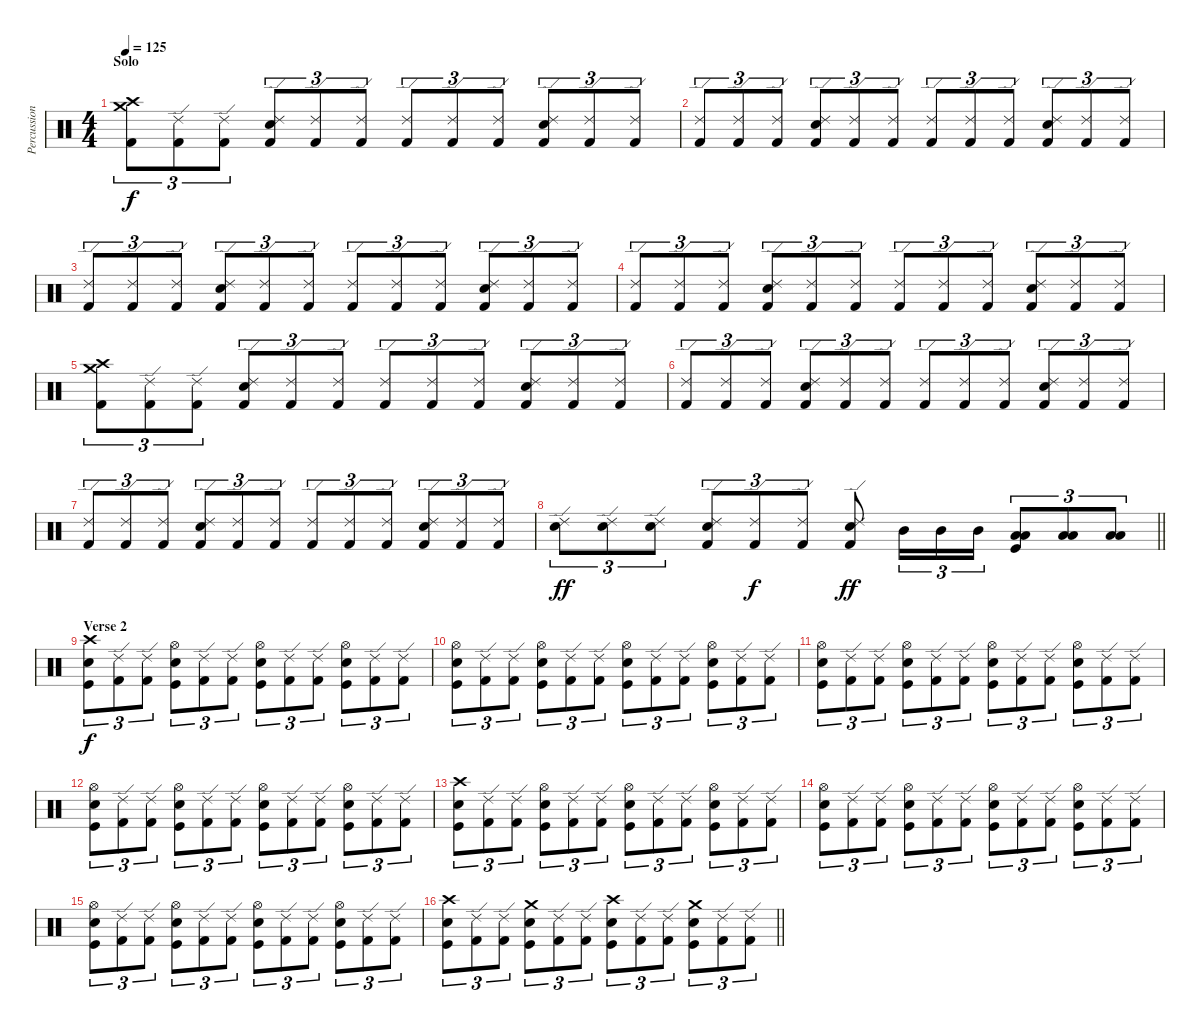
\track ("Percussion" "Percussion") {instrument percussion}
\staff {score}
\articulation defaults
\ts (4 4)
\section ("" "Solo")
\tempo 125
\clef neutral
\ks c
("Crash medium (hit)" "Crash high (hit)" "Kick (hit) 2").8{tu (3 2) dy f} ("Ride (edge) 2" "Kick (hit) 2").8{tu (3 2)} ("Ride (edge) 2" "Kick (hit) 2").8{tu (3 2)} ("Snare (hit) 2" "Ride (edge) 2" "Kick (hit) 2").8{tu (3 2)} ("Ride (edge) 2" "Kick (hit) 2").8{tu (3 2)} ("Ride (edge) 2" "Kick (hit) 2").8{tu (3 2)} ("Ride (edge) 2" "Kick (hit) 2").8{tu (3 2)} ("Ride (edge) 2" "Kick (hit) 2").8{tu (3 2)} ("Ride (edge) 2" "Kick (hit) 2").8{tu (3 2)} ("Snare (hit) 2" "Ride (edge) 2" "Kick (hit) 2").8{tu (3 2)} ("Ride (edge) 2" "Kick (hit) 2").8{tu (3 2)} ("Ride (edge) 2" "Kick (hit) 2").8{tu (3 2)} |
("Ride (edge) 2" "Kick (hit) 2").8{tu (3 2)} ("Ride (edge) 2" "Kick (hit) 2").8{tu (3 2)} ("Ride (edge) 2" "Kick (hit) 2").8{tu (3 2)} ("Snare (hit) 2" "Ride (edge) 2" "Kick (hit) 2").8{tu (3 2)} ("Ride (edge) 2" "Kick (hit) 2").8{tu (3 2)} ("Ride (edge) 2" "Kick (hit) 2").8{tu (3 2)} ("Ride (edge) 2" "Kick (hit) 2").8{tu (3 2)} ("Ride (edge) 2" "Kick (hit) 2").8{tu (3 2)} ("Ride (edge) 2" "Kick (hit) 2").8{tu (3 2)} ("Snare (hit) 2" "Ride (edge) 2" "Kick (hit) 2").8{tu (3 2)} ("Ride (edge) 2" "Kick (hit) 2").8{tu (3 2)} ("Ride (edge) 2" "Kick (hit) 2").8{tu (3 2)} |
("Ride (edge) 2" "Kick (hit) 2").8{tu (3 2)} ("Ride (edge) 2" "Kick (hit) 2").8{tu (3 2)} ("Ride (edge) 2" "Kick (hit) 2").8{tu (3 2)} ("Snare (hit) 2" "Ride (edge) 2" "Kick (hit) 2").8{tu (3 2)} ("Ride (edge) 2" "Kick (hit) 2").8{tu (3 2)} ("Ride (edge) 2" "Kick (hit) 2").8{tu (3 2)} ("Ride (edge) 2" "Kick (hit) 2").8{tu (3 2)} ("Ride (edge) 2" "Kick (hit) 2").8{tu (3 2)} ("Ride (edge) 2" "Kick (hit) 2").8{tu (3 2)} ("Snare (hit) 2" "Ride (edge) 2" "Kick (hit) 2").8{tu (3 2)} ("Ride (edge) 2" "Kick (hit) 2").8{tu (3 2)} ("Ride (edge) 2" "Kick (hit) 2").8{tu (3 2)} |
("Ride (edge) 2" "Kick (hit) 2").8{tu (3 2)} ("Ride (edge) 2" "Kick (hit) 2").8{tu (3 2)} ("Ride (edge) 2" "Kick (hit) 2").8{tu (3 2)} ("Snare (hit) 2" "Ride (edge) 2" "Kick (hit) 2").8{tu (3 2)} ("Ride (edge) 2" "Kick (hit) 2").8{tu (3 2)} ("Ride (edge) 2" "Kick (hit) 2").8{tu (3 2)} ("Ride (edge) 2" "Kick (hit) 2").8{tu (3 2)} ("Ride (edge) 2" "Kick (hit) 2").8{tu (3 2)} ("Ride (edge) 2" "Kick (hit) 2").8{tu (3 2)} ("Snare (hit) 2" "Ride (edge) 2" "Kick (hit) 2").8{tu (3 2)} ("Ride (edge) 2" "Kick (hit) 2").8{tu (3 2)} ("Ride (edge) 2" "Kick (hit) 2").8{tu (3 2)} |
("Crash medium (hit)" "Crash high (hit)" "Kick (hit) 2").8{tu (3 2)} ("Ride (edge) 2" "Kick (hit) 2").8{tu (3 2)} ("Ride (edge) 2" "Kick (hit) 2").8{tu (3 2)} ("Snare (hit) 2" "Ride (edge) 2" "Kick (hit) 2").8{tu (3 2)} ("Ride (edge) 2" "Kick (hit) 2").8{tu (3 2)} ("Ride (edge) 2" "Kick (hit) 2").8{tu (3 2)} ("Ride (edge) 2" "Kick (hit) 2").8{tu (3 2)} ("Ride (edge) 2" "Kick (hit) 2").8{tu (3 2)} ("Ride (edge) 2" "Kick (hit) 2").8{tu (3 2)} ("Snare (hit) 2" "Ride (edge) 2" "Kick (hit) 2").8{tu (3 2)} ("Ride (edge) 2" "Kick (hit) 2").8{tu (3 2)} ("Ride (edge) 2" "Kick (hit) 2").8{tu (3 2)} |
("Ride (edge) 2" "Kick (hit) 2").8{tu (3 2)} ("Ride (edge) 2" "Kick (hit) 2").8{tu (3 2)} ("Ride (edge) 2" "Kick (hit) 2").8{tu (3 2)} ("Snare (hit) 2" "Ride (edge) 2" "Kick (hit) 2").8{tu (3 2)} ("Ride (edge) 2" "Kick (hit) 2").8{tu (3 2)} ("Ride (edge) 2" "Kick (hit) 2").8{tu (3 2)} ("Ride (edge) 2" "Kick (hit) 2").8{tu (3 2)} ("Ride (edge) 2" "Kick (hit) 2").8{tu (3 2)} ("Ride (edge) 2" "Kick (hit) 2").8{tu (3 2)} ("Snare (hit) 2" "Ride (edge) 2" "Kick (hit) 2").8{tu (3 2)} ("Ride (edge) 2" "Kick (hit) 2").8{tu (3 2)} ("Ride (edge) 2" "Kick (hit) 2").8{tu (3 2)} |
("Ride (edge) 2" "Kick (hit) 2").8{tu (3 2)} ("Ride (edge) 2" "Kick (hit) 2").8{tu (3 2)} ("Ride (edge) 2" "Kick (hit) 2").8{tu (3 2)} ("Snare (hit) 2" "Ride (edge) 2" "Kick (hit) 2").8{tu (3 2)} ("Ride (edge) 2" "Kick (hit) 2").8{tu (3 2)} ("Ride (edge) 2" "Kick (hit) 2").8{tu (3 2)} ("Ride (edge) 2" "Kick (hit) 2").8{tu (3 2)} ("Ride (edge) 2" "Kick (hit) 2").8{tu (3 2)} ("Ride (edge) 2" "Kick (hit) 2").8{tu (3 2)} ("Snare (hit) 2" "Ride (edge) 2" "Kick (hit) 2").8{tu (3 2)} ("Ride (edge) 2" "Kick (hit) 2").8{tu (3 2)} ("Ride (edge) 2" "Kick (hit) 2").8{tu (3 2)} |
\barLineRight lightlight
("Ride (edge) 2" "Snare (hit) 2").8{tu (3 2) dy ff} ("Ride (edge) 2" "Snare (hit) 2").8{tu (3 2)} ("Ride (edge) 2" "Snare (hit) 2").8{tu (3 2)} ("Snare (hit) 2" "Ride (edge) 2" "Kick (hit) 2").8{tu (3 2)} ("Ride (edge) 2" "Kick (hit) 2").8{tu (3 2) dy f} ("Ride (edge) 2" "Kick (hit) 2").8{tu (3 2)} ("Ride (edge) 2" "Snare (hit) 2" "Kick (hit) 2").8{dy ff} "Mid Tom (hit)".16{tu (3 2)} "Mid Tom (hit)".16{tu (3 2)} "Mid Tom (hit)".16{tu (3 2)} ("Low Tom (hit)" "Low Tom (hit)" "Kick (hit)").8{tu (3 2)} ("Low Tom (hit)" "Low Tom (hit)").8{tu (3 2)} ("Low Tom (hit)" "Low Tom (hit)").8{tu (3 2)} |
\section ("" "Verse 2")
("Snare (hit) 2" "Kick (hit)" "Crash high (hit)").8{tu (3 2) dy f} ("Kick (hit) 2" "Ride (edge) 2").8{tu (3 2)} ("Kick (hit) 2" "Ride (edge) 2").8{tu (3 2)} ("Snare (hit) 2" "Kick (hit)" "Hi-Hat (open)").8{tu (3 2)} ("Kick (hit) 2" "Ride (edge) 2").8{tu (3 2)} ("Kick (hit) 2" "Ride (edge) 2").8{tu (3 2)} ("Snare (hit) 2" "Kick (hit)" "Hi-Hat (open)").8{tu (3 2)} ("Kick (hit) 2" "Ride (edge) 2").8{tu (3 2)} ("Kick (hit) 2" "Ride (edge) 2").8{tu (3 2)} ("Snare (hit) 2" "Kick (hit)" "Hi-Hat (open)").8{tu (3 2)} ("Kick (hit) 2" "Ride (edge) 2").8{tu (3 2)} ("Kick (hit) 2" "Ride (edge) 2").8{tu (3 2)} |
("Snare (hit) 2" "Kick (hit)" "Hi-Hat (open)").8{tu (3 2)} ("Kick (hit) 2" "Ride (edge) 2").8{tu (3 2)} ("Kick (hit) 2" "Ride (edge) 2").8{tu (3 2)} ("Snare (hit) 2" "Kick (hit)" "Hi-Hat (open)").8{tu (3 2)} ("Kick (hit) 2" "Ride (edge) 2").8{tu (3 2)} ("Kick (hit) 2" "Ride (edge) 2").8{tu (3 2)} ("Snare (hit) 2" "Kick (hit)" "Hi-Hat (open)").8{tu (3 2)} ("Kick (hit) 2" "Ride (edge) 2").8{tu (3 2)} ("Kick (hit) 2" "Ride (edge) 2").8{tu (3 2)} ("Snare (hit) 2" "Kick (hit)" "Hi-Hat (open)").8{tu (3 2)} ("Kick (hit) 2" "Ride (edge) 2").8{tu (3 2)} ("Kick (hit) 2" "Ride (edge) 2").8{tu (3 2)} |
("Snare (hit) 2" "Kick (hit)" "Hi-Hat (open)").8{tu (3 2)} ("Kick (hit) 2" "Ride (edge) 2").8{tu (3 2)} ("Kick (hit) 2" "Ride (edge) 2").8{tu (3 2)} ("Snare (hit) 2" "Kick (hit)" "Hi-Hat (open)").8{tu (3 2)} ("Kick (hit) 2" "Ride (edge) 2").8{tu (3 2)} ("Kick (hit) 2" "Ride (edge) 2").8{tu (3 2)} ("Snare (hit) 2" "Kick (hit)" "Hi-Hat (open)").8{tu (3 2)} ("Kick (hit) 2" "Ride (edge) 2").8{tu (3 2)} ("Kick (hit) 2" "Ride (edge) 2").8{tu (3 2)} ("Snare (hit) 2" "Kick (hit)" "Hi-Hat (open)").8{tu (3 2)} ("Kick (hit) 2" "Ride (edge) 2").8{tu (3 2)} ("Kick (hit) 2" "Ride (edge) 2").8{tu (3 2)} |
("Snare (hit) 2" "Kick (hit)" "Hi-Hat (open)").8{tu (3 2)} ("Kick (hit) 2" "Ride (edge) 2").8{tu (3 2)} ("Kick (hit) 2" "Ride (edge) 2").8{tu (3 2)} ("Snare (hit) 2" "Kick (hit)" "Hi-Hat (open)").8{tu (3 2)} ("Kick (hit) 2" "Ride (edge) 2").8{tu (3 2)} ("Kick (hit) 2" "Ride (edge) 2").8{tu (3 2)} ("Snare (hit) 2" "Kick (hit)" "Hi-Hat (open)").8{tu (3 2)} ("Kick (hit) 2" "Ride (edge) 2").8{tu (3 2)} ("Kick (hit) 2" "Ride (edge) 2").8{tu (3 2)} ("Snare (hit) 2" "Kick (hit)" "Hi-Hat (open)").8{tu (3 2)} ("Kick (hit) 2" "Ride (edge) 2").8{tu (3 2)} ("Kick (hit) 2" "Ride (edge) 2").8{tu (3 2)} |
("Snare (hit) 2" "Kick (hit)" "Crash high (hit)").8{tu (3 2)} ("Kick (hit) 2" "Ride (edge) 2").8{tu (3 2)} ("Kick (hit) 2" "Ride (edge) 2").8{tu (3 2)} ("Snare (hit) 2" "Kick (hit)" "Hi-Hat (open)").8{tu (3 2)} ("Kick (hit) 2" "Ride (edge) 2").8{tu (3 2)} ("Kick (hit) 2" "Ride (edge) 2").8{tu (3 2)} ("Snare (hit) 2" "Kick (hit)" "Hi-Hat (open)").8{tu (3 2)} ("Kick (hit) 2" "Ride (edge) 2").8{tu (3 2)} ("Kick (hit) 2" "Ride (edge) 2").8{tu (3 2)} ("Snare (hit) 2" "Kick (hit)" "Hi-Hat (open)").8{tu (3 2)} ("Kick (hit) 2" "Ride (edge) 2").8{tu (3 2)} ("Kick (hit) 2" "Ride (edge) 2").8{tu (3 2)} |
("Snare (hit) 2" "Kick (hit)" "Hi-Hat (open)").8{tu (3 2)} ("Kick (hit) 2" "Ride (edge) 2").8{tu (3 2)} ("Kick (hit) 2" "Ride (edge) 2").8{tu (3 2)} ("Snare (hit) 2" "Kick (hit)" "Hi-Hat (open)").8{tu (3 2)} ("Kick (hit) 2" "Ride (edge) 2").8{tu (3 2)} ("Kick (hit) 2" "Ride (edge) 2").8{tu (3 2)} ("Snare (hit) 2" "Kick (hit)" "Hi-Hat (open)").8{tu (3 2)} ("Kick (hit) 2" "Ride (edge) 2").8{tu (3 2)} ("Kick (hit) 2" "Ride (edge) 2").8{tu (3 2)} ("Snare (hit) 2" "Kick (hit)" "Hi-Hat (open)").8{tu (3 2)} ("Kick (hit) 2" "Ride (edge) 2").8{tu (3 2)} ("Kick (hit) 2" "Ride (edge) 2").8{tu (3 2)} |
("Snare (hit) 2" "Kick (hit)" "Hi-Hat (open)").8{tu (3 2)} ("Kick (hit) 2" "Ride (edge) 2").8{tu (3 2)} ("Kick (hit) 2" "Ride (edge) 2").8{tu (3 2)} ("Snare (hit) 2" "Kick (hit)" "Hi-Hat (open)").8{tu (3 2)} ("Kick (hit) 2" "Ride (edge) 2").8{tu (3 2)} ("Kick (hit) 2" "Ride (edge) 2").8{tu (3 2)} ("Snare (hit) 2" "Kick (hit)" "Hi-Hat (open)").8{tu (3 2)} ("Kick (hit) 2" "Ride (edge) 2").8{tu (3 2)} ("Kick (hit) 2" "Ride (edge) 2").8{tu (3 2)} ("Snare (hit) 2" "Kick (hit)" "Hi-Hat (open)").8{tu (3 2)} ("Kick (hit) 2" "Ride (edge) 2").8{tu (3 2)} ("Kick (hit) 2" "Ride (edge) 2").8{tu (3 2)} |
\barLineRight lightlight
("Snare (hit) 2" "Kick (hit)" "Crash high (hit)").8{tu (3 2)} ("Kick (hit) 2" "Ride (edge) 2").8{tu (3 2)} ("Kick (hit) 2" "Ride (edge) 2").8{tu (3 2)} ("Snare (hit) 2" "Kick (hit)" "Crash medium (hit)").8{tu (3 2)} ("Kick (hit) 2" "Ride (edge) 2").8{tu (3 2)} ("Kick (hit) 2" "Ride (edge) 2").8{tu (3 2)} ("Snare (hit) 2" "Kick (hit)" "Crash high (hit)").8{tu (3 2)} ("Kick (hit) 2" "Ride (edge) 2").8{tu (3 2)} ("Kick (hit) 2" "Ride (edge) 2").8{tu (3 2)} ("Snare (hit) 2" "Kick (hit)" "Crash medium (hit)").8{tu (3 2)} ("Kick (hit) 2" "Ride (edge) 2").8{tu (3 2)} ("Kick (hit) 2" "Ride (edge) 2").8{tu (3 2)}
